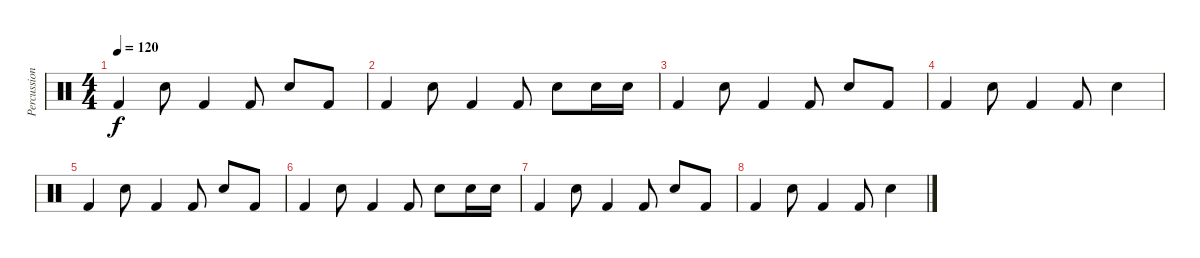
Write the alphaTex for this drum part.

\track ("Percussion" "Percussion") {instrument percussion}
\staff {score}
\articulation defaults
\ts (4 4)
\tempo 120
\clef neutral
\ks c "Kick (hit) 2".4{dy f} "Hand Clap (hit)".8 "Kick (hit) 2".4 "Kick (hit) 2".8 "Hand Clap (hit)".8 "Kick (hit) 2".8
|
"Kick (hit) 2".4 "Hand Clap (hit)".8 "Kick (hit) 2".4 "Kick (hit) 2".8 "Hand Clap (hit)".8 "Hand Clap (hit)".16 "Hand Clap (hit)".16 |
"Kick (hit) 2".4 "Hand Clap (hit)".8 "Kick (hit) 2".4 "Kick (hit) 2".8 "Hand Clap (hit)".8 "Kick (hit) 2".8 |
"Kick (hit) 2".4 "Hand Clap (hit)".8 "Kick (hit) 2".4 "Kick (hit) 2".8 "Hand Clap (hit)".4 |
"Kick (hit) 2".4 "Hand Clap (hit)".8 "Kick (hit) 2".4 "Kick (hit) 2".8 "Hand Clap (hit)".8 "Kick (hit) 2".8 |
"Kick (hit) 2".4 "Hand Clap (hit)".8 "Kick (hit) 2".4 "Kick (hit) 2".8 "Hand Clap (hit)".8 "Hand Clap (hit)".16 "Hand Clap (hit)".16 |
"Kick (hit) 2".4 "Hand Clap (hit)".8 "Kick (hit) 2".4 "Kick (hit) 2".8 "Hand Clap (hit)".8 "Kick (hit) 2".8 |
"Kick (hit) 2".4 "Hand Clap (hit)".8 "Kick (hit) 2".4 "Kick (hit) 2".8 "Hand Clap (hit)".4
